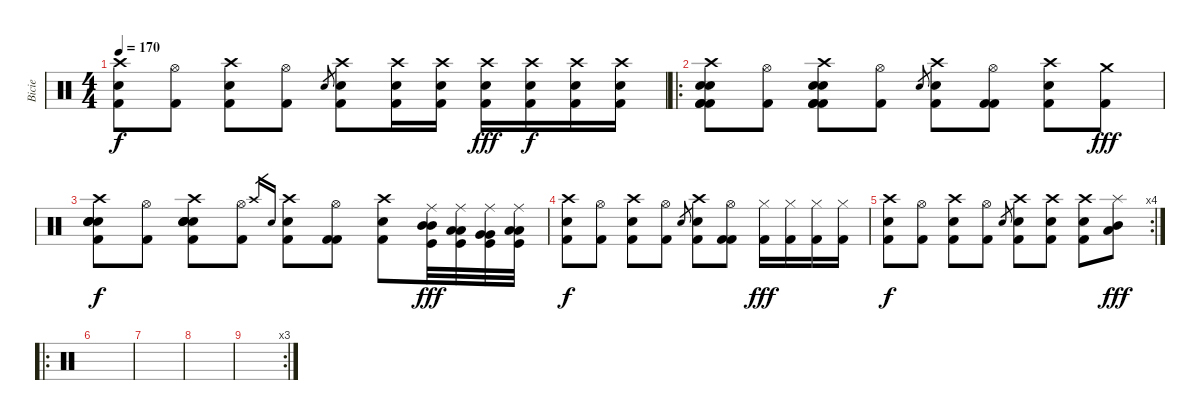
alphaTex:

\track ("Bicie" "Bicie") {instrument percussion}
\staff {score}
\articulation defaults
\ts (4 4)
\tempo 170
\clef neutral
\ks c
("Crash high (hit)" "Kick (hit) 2" "Electric Snare (hit)").8{dy f} ("Hi-Hat (open)" "Kick (hit) 2").8 ("Crash high (hit)" "Kick (hit) 2" "Electric Snare (hit)").8 ("Hi-Hat (open)" "Kick (hit) 2").8 "Electric Snare (hit)".8{gr} ("Crash high (hit)" "Kick (hit) 2" "Electric Snare (hit)").8 ("Crash high (hit)" "Kick (hit) 2" "Electric Snare (hit)").16 ("Crash high (hit)" "Kick (hit) 2" "Electric Snare (hit)").16 ("Crash high (hit)" "Kick (hit) 2" "Electric Snare (hit)").16{dy fff} ("Crash high (hit)" "Kick (hit) 2" "Electric Snare (hit)").16{dy f} ("Crash high (hit)" "Kick (hit) 2" "Electric Snare (hit)").16 ("Crash high (hit)" "Kick (hit) 2" "Electric Snare (hit)").16 |
\ro
("Crash high (hit)" "Electric Snare (hit)" "Kick (hit) 2" "Kick (hit) 2" "Kick (hit) 2" "Electric Snare (hit)").8 ("Hi-Hat (open)" "Kick (hit) 2").8 ("Crash high (hit)" "Electric Snare (hit)" "Kick (hit) 2" "Kick (hit) 2" "Kick (hit) 2" "Electric Snare (hit)").8 ("Hi-Hat (open)" "Kick (hit) 2").8 "Electric Snare (hit)".8{gr} ("Crash high (hit)" "Kick (hit) 2" "Electric Snare (hit)").8 ("Hi-Hat (open)" "Kick (hit) 2" "Kick (hit) 2").8 ("Crash high (hit)" "Kick (hit) 2" "Electric Snare (hit)").8 ("Crash medium (hit)" "Kick (hit) 2").8{dy fff} |
("Crash high (hit)" "Electric Snare (hit)" "Electric Snare (hit)" "Electric Snare (hit)" "Kick (hit) 2" "Electric Snare (hit)").8{dy f} ("Hi-Hat (open)" "Kick (hit) 2").8 ("Crash high (hit)" "Electric Snare (hit)" "Electric Snare (hit)" "Electric Snare (hit)" "Kick (hit) 2" "Electric Snare (hit)").8 ("Hi-Hat (open)" "Kick (hit) 2").8 "Crash high (hit)".16{gr} "Electric Snare (hit)".16{gr} ("Crash high (hit)" "Kick (hit) 2" "Electric Snare (hit)").8 ("Hi-Hat (open)" "Kick (hit) 2" "Kick (hit) 2").8 ("Crash high (hit)" "Kick (hit) 2" "Electric Snare (hit)").8 ("Ride (middle)" "Mid Tom (hit)" "Kick (hit)" "Mid Tom (hit)").32{dy fff} ("Ride (middle)" "Low Tom (hit)" "Kick (hit)" "Low Tom (hit)").32 ("Ride (middle)" "Very Low Tom (hit)" "Kick (hit)" "Very Low Tom (hit)").32 ("Ride (middle)" "Low Floor Tom (hit)" "Kick (hit)" "Low Floor Tom (hit)").32 |
("Crash high (hit)" "Kick (hit) 2" "Electric Snare (hit)").8{dy f} ("Hi-Hat (open)" "Kick (hit) 2").8 ("Crash high (hit)" "Kick (hit) 2" "Electric Snare (hit)").8 ("Hi-Hat (open)" "Kick (hit) 2").8 "Electric Snare (hit)".8{gr} ("Crash high (hit)" "Kick (hit) 2" "Electric Snare (hit)").8 ("Hi-Hat (open)" "Kick (hit) 2" "Kick (hit) 2").8 ("Hi-Hat (closed)" "Kick (hit) 2").16{dy fff} ("Hi-Hat (closed)" "Kick (hit) 2").16 ("Hi-Hat (closed)" "Kick (hit) 2").16 ("Hi-Hat (closed)" "Kick (hit) 2").16 |
\rc 4
("Crash high (hit)" "Kick (hit) 2" "Electric Snare (hit)").8{dy f} ("Hi-Hat (open)" "Kick (hit) 2").8 ("Crash high (hit)" "Kick (hit) 2" "Electric Snare (hit)").8 ("Hi-Hat (open)" "Kick (hit) 2").8 "Electric Snare (hit)".8{gr} ("Crash high (hit)" "Kick (hit) 2" "Electric Snare (hit)").8 ("Crash high (hit)" "Kick (hit) 2" "Electric Snare (hit)").8 ("Crash high (hit)" "Kick (hit) 2" "Electric Snare (hit)").8 ("Splash (hit)" "Low Floor Tom (hit)" "Mid Tom (hit)").8{dy fff} |
\ro
|
|
|
\rc 3
